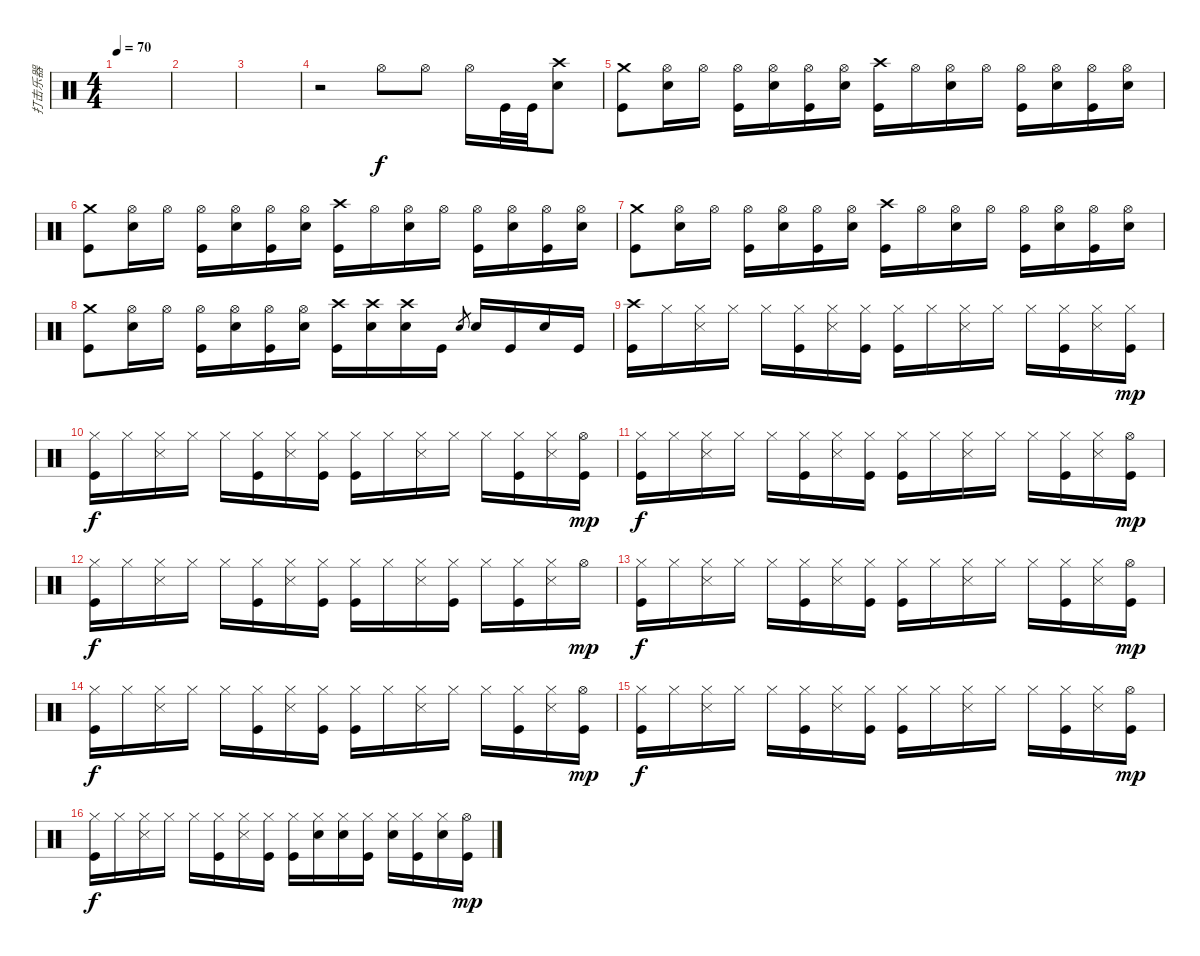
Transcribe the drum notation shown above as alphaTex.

\track ("打击乐器" "打击乐器") {instrument percussion}
\staff {score}
\articulation defaults
\ts (4 4)
\tempo 70
\clef neutral
\ks c
|
|
|
r.2 "Hi-Hat (open)".8 "Hi-Hat (open)".8 "Hi-Hat (open)".16 "Kick (hit)".32 "Kick (hit)".32 ("Crash high (hit)" "Electric Snare (hit)").8 |
("Crash medium (hit)" "Kick (hit)").8 ("Hi-Hat (open)" "Electric Snare (hit)").16 "Hi-Hat (open)".16 ("Hi-Hat (open)" "Kick (hit)").16 ("Hi-Hat (open)" "Electric Snare (hit)").16 ("Hi-Hat (open)" "Kick (hit)").16 ("Hi-Hat (open)" "Electric Snare (hit)").16 ("Crash high (hit)" "Kick (hit)").16 "Hi-Hat (open)".16 ("Hi-Hat (open)" "Electric Snare (hit)").16 "Hi-Hat (open)".16 ("Hi-Hat (open)" "Kick (hit)").16 ("Hi-Hat (open)" "Electric Snare (hit)").16 ("Hi-Hat (open)" "Kick (hit)").16 ("Hi-Hat (open)" "Electric Snare (hit)").16 |
("Crash medium (hit)" "Kick (hit)").8 ("Hi-Hat (open)" "Electric Snare (hit)").16 "Hi-Hat (open)".16 ("Hi-Hat (open)" "Kick (hit)").16 ("Hi-Hat (open)" "Electric Snare (hit)").16 ("Hi-Hat (open)" "Kick (hit)").16 ("Hi-Hat (open)" "Electric Snare (hit)").16 ("Crash high (hit)" "Kick (hit)").16 "Hi-Hat (open)".16 ("Hi-Hat (open)" "Electric Snare (hit)").16 "Hi-Hat (open)".16 ("Hi-Hat (open)" "Kick (hit)").16 ("Hi-Hat (open)" "Electric Snare (hit)").16 ("Hi-Hat (open)" "Kick (hit)").16 ("Hi-Hat (open)" "Electric Snare (hit)").16 |
("Crash medium (hit)" "Kick (hit)").8 ("Hi-Hat (open)" "Electric Snare (hit)").16 "Hi-Hat (open)".16 ("Hi-Hat (open)" "Kick (hit)").16 ("Hi-Hat (open)" "Electric Snare (hit)").16 ("Hi-Hat (open)" "Kick (hit)").16 ("Hi-Hat (open)" "Electric Snare (hit)").16 ("Crash high (hit)" "Kick (hit)").16 "Hi-Hat (open)".16 ("Hi-Hat (open)" "Electric Snare (hit)").16 "Hi-Hat (open)".16 ("Hi-Hat (open)" "Kick (hit)").16 ("Hi-Hat (open)" "Electric Snare (hit)").16 ("Hi-Hat (open)" "Kick (hit)").16 ("Hi-Hat (open)" "Electric Snare (hit)").16 |
("Crash medium (hit)" "Kick (hit)").8 ("Hi-Hat (open)" "Electric Snare (hit)").16 "Hi-Hat (open)".16 ("Hi-Hat (open)" "Kick (hit)").16 ("Hi-Hat (open)" "Electric Snare (hit)").16 ("Hi-Hat (open)" "Kick (hit)").16 ("Hi-Hat (open)" "Electric Snare (hit)").16 ("Crash high (hit)" "Kick (hit)").16 ("Crash high (hit)" "Electric Snare (hit)").16 ("Crash high (hit)" "Electric Snare (hit)").16 "Kick (hit)".16 "Electric Snare (hit)".8{gr} "Electric Snare (hit)".16 "Kick (hit)".16 "Electric Snare (hit)".16 "Kick (hit)".16 |
("Crash high (hit)" "Kick (hit)").16 "Hi-Hat (closed)".16 ("Hi-Hat (closed)" "Snare (side stick) 3").16 "Hi-Hat (closed)".16 "Hi-Hat (closed)".16 ("Hi-Hat (closed)" "Kick (hit)").16 ("Hi-Hat (closed)" "Snare (side stick) 3").16 ("Hi-Hat (closed)" "Kick (hit)").16 ("Hi-Hat (closed)" "Kick (hit)").16 "Hi-Hat (closed)".16 ("Hi-Hat (closed)" "Snare (side stick) 3").16 "Hi-Hat (closed)".16 "Hi-Hat (closed)".16 ("Hi-Hat (closed)" "Kick (hit)").16 ("Hi-Hat (closed)" "Snare (side stick) 3").16 ("Hi-Hat (closed)" "Kick (hit)").16{dy mp} |
("Hi-Hat (closed)" "Kick (hit)").16{dy f} "Hi-Hat (closed)".16 ("Hi-Hat (closed)" "Snare (side stick) 3").16 "Hi-Hat (closed)".16 "Hi-Hat (closed)".16 ("Hi-Hat (closed)" "Kick (hit)").16 ("Hi-Hat (closed)" "Snare (side stick) 3").16 ("Hi-Hat (closed)" "Kick (hit)").16 ("Hi-Hat (closed)" "Kick (hit)").16 "Hi-Hat (closed)".16 ("Hi-Hat (closed)" "Snare (side stick) 3").16 "Hi-Hat (closed)".16 "Hi-Hat (closed)".16 ("Hi-Hat (closed)" "Kick (hit)").16 ("Hi-Hat (closed)" "Snare (side stick) 3").16 ("Hi-Hat (open)" "Kick (hit)").16{dy mp} |
("Hi-Hat (closed)" "Kick (hit)").16{dy f} "Hi-Hat (closed)".16 ("Hi-Hat (closed)" "Snare (side stick) 3").16 "Hi-Hat (closed)".16 "Hi-Hat (closed)".16 ("Hi-Hat (closed)" "Kick (hit)").16 ("Hi-Hat (closed)" "Snare (side stick) 3").16 ("Hi-Hat (closed)" "Kick (hit)").16 ("Hi-Hat (closed)" "Kick (hit)").16 "Hi-Hat (closed)".16 ("Hi-Hat (closed)" "Snare (side stick) 3").16 "Hi-Hat (closed)".16 "Hi-Hat (closed)".16 ("Hi-Hat (closed)" "Kick (hit)").16 ("Hi-Hat (closed)" "Snare (side stick) 3").16 ("Hi-Hat (open)" "Kick (hit)").16{dy mp} |
("Hi-Hat (closed)" "Kick (hit)").16{dy f} "Hi-Hat (closed)".16 ("Hi-Hat (closed)" "Snare (side stick) 3").16 "Hi-Hat (closed)".16 "Hi-Hat (closed)".16 ("Hi-Hat (closed)" "Kick (hit)").16 ("Hi-Hat (closed)" "Snare (side stick) 3").16 ("Hi-Hat (closed)" "Kick (hit)").16 ("Hi-Hat (closed)" "Kick (hit)").16 "Hi-Hat (closed)".16 ("Hi-Hat (closed)" "Snare (side stick) 3").16 ("Hi-Hat (closed)" "Kick (hit)").16 "Hi-Hat (closed)".16 ("Hi-Hat (closed)" "Kick (hit)").16 ("Hi-Hat (closed)" "Snare (side stick) 3").16 "Hi-Hat (open)".16{dy mp} |
("Hi-Hat (closed)" "Kick (hit)").16{dy f} "Hi-Hat (closed)".16 ("Hi-Hat (closed)" "Snare (side stick) 3").16 "Hi-Hat (closed)".16 "Hi-Hat (closed)".16 ("Hi-Hat (closed)" "Kick (hit)").16 ("Hi-Hat (closed)" "Snare (side stick) 3").16 ("Hi-Hat (closed)" "Kick (hit)").16 ("Hi-Hat (closed)" "Kick (hit)").16 "Hi-Hat (closed)".16 ("Hi-Hat (closed)" "Snare (side stick) 3").16 "Hi-Hat (closed)".16 "Hi-Hat (closed)".16 ("Hi-Hat (closed)" "Kick (hit)").16 ("Hi-Hat (closed)" "Snare (side stick) 3").16 ("Hi-Hat (open)" "Kick (hit)").16{dy mp} |
("Hi-Hat (closed)" "Kick (hit)").16{dy f} "Hi-Hat (closed)".16 ("Hi-Hat (closed)" "Snare (side stick) 3").16 "Hi-Hat (closed)".16 "Hi-Hat (closed)".16 ("Hi-Hat (closed)" "Kick (hit)").16 ("Hi-Hat (closed)" "Snare (side stick) 3").16 ("Hi-Hat (closed)" "Kick (hit)").16 ("Hi-Hat (closed)" "Kick (hit)").16 "Hi-Hat (closed)".16 ("Hi-Hat (closed)" "Snare (side stick) 3").16 "Hi-Hat (closed)".16 "Hi-Hat (closed)".16 ("Hi-Hat (closed)" "Kick (hit)").16 ("Hi-Hat (closed)" "Snare (side stick) 3").16 ("Hi-Hat (open)" "Kick (hit)").16{dy mp} |
("Hi-Hat (closed)" "Kick (hit)").16{dy f} "Hi-Hat (closed)".16 ("Hi-Hat (closed)" "Snare (side stick) 3").16 "Hi-Hat (closed)".16 "Hi-Hat (closed)".16 ("Hi-Hat (closed)" "Kick (hit)").16 ("Hi-Hat (closed)" "Snare (side stick) 3").16 ("Hi-Hat (closed)" "Kick (hit)").16 ("Hi-Hat (closed)" "Kick (hit)").16 "Hi-Hat (closed)".16 ("Hi-Hat (closed)" "Snare (side stick) 3").16 "Hi-Hat (closed)".16 "Hi-Hat (closed)".16 ("Hi-Hat (closed)" "Kick (hit)").16 ("Hi-Hat (closed)" "Snare (side stick) 3").16 ("Hi-Hat (open)" "Kick (hit)").16{dy mp} |
("Hi-Hat (closed)" "Kick (hit)").16{dy f} "Hi-Hat (closed)".16 ("Hi-Hat (closed)" "Snare (side stick) 3").16 "Hi-Hat (closed)".16 "Hi-Hat (closed)".16 ("Hi-Hat (closed)" "Kick (hit)").16 ("Hi-Hat (closed)" "Snare (side stick) 3").16 ("Hi-Hat (closed)" "Kick (hit)").16 ("Hi-Hat (closed)" "Kick (hit)").16 ("Hi-Hat (closed)" "Electric Snare (hit)").16 ("Hi-Hat (closed)" "Electric Snare (hit)").16 ("Hi-Hat (closed)" "Kick (hit)").16 ("Hi-Hat (closed)" "Electric Snare (hit)").16 ("Hi-Hat (closed)" "Kick (hit)").16 ("Hi-Hat (closed)" "Electric Snare (hit)").16 ("Hi-Hat (open)" "Kick (hit)").16{dy mp}
